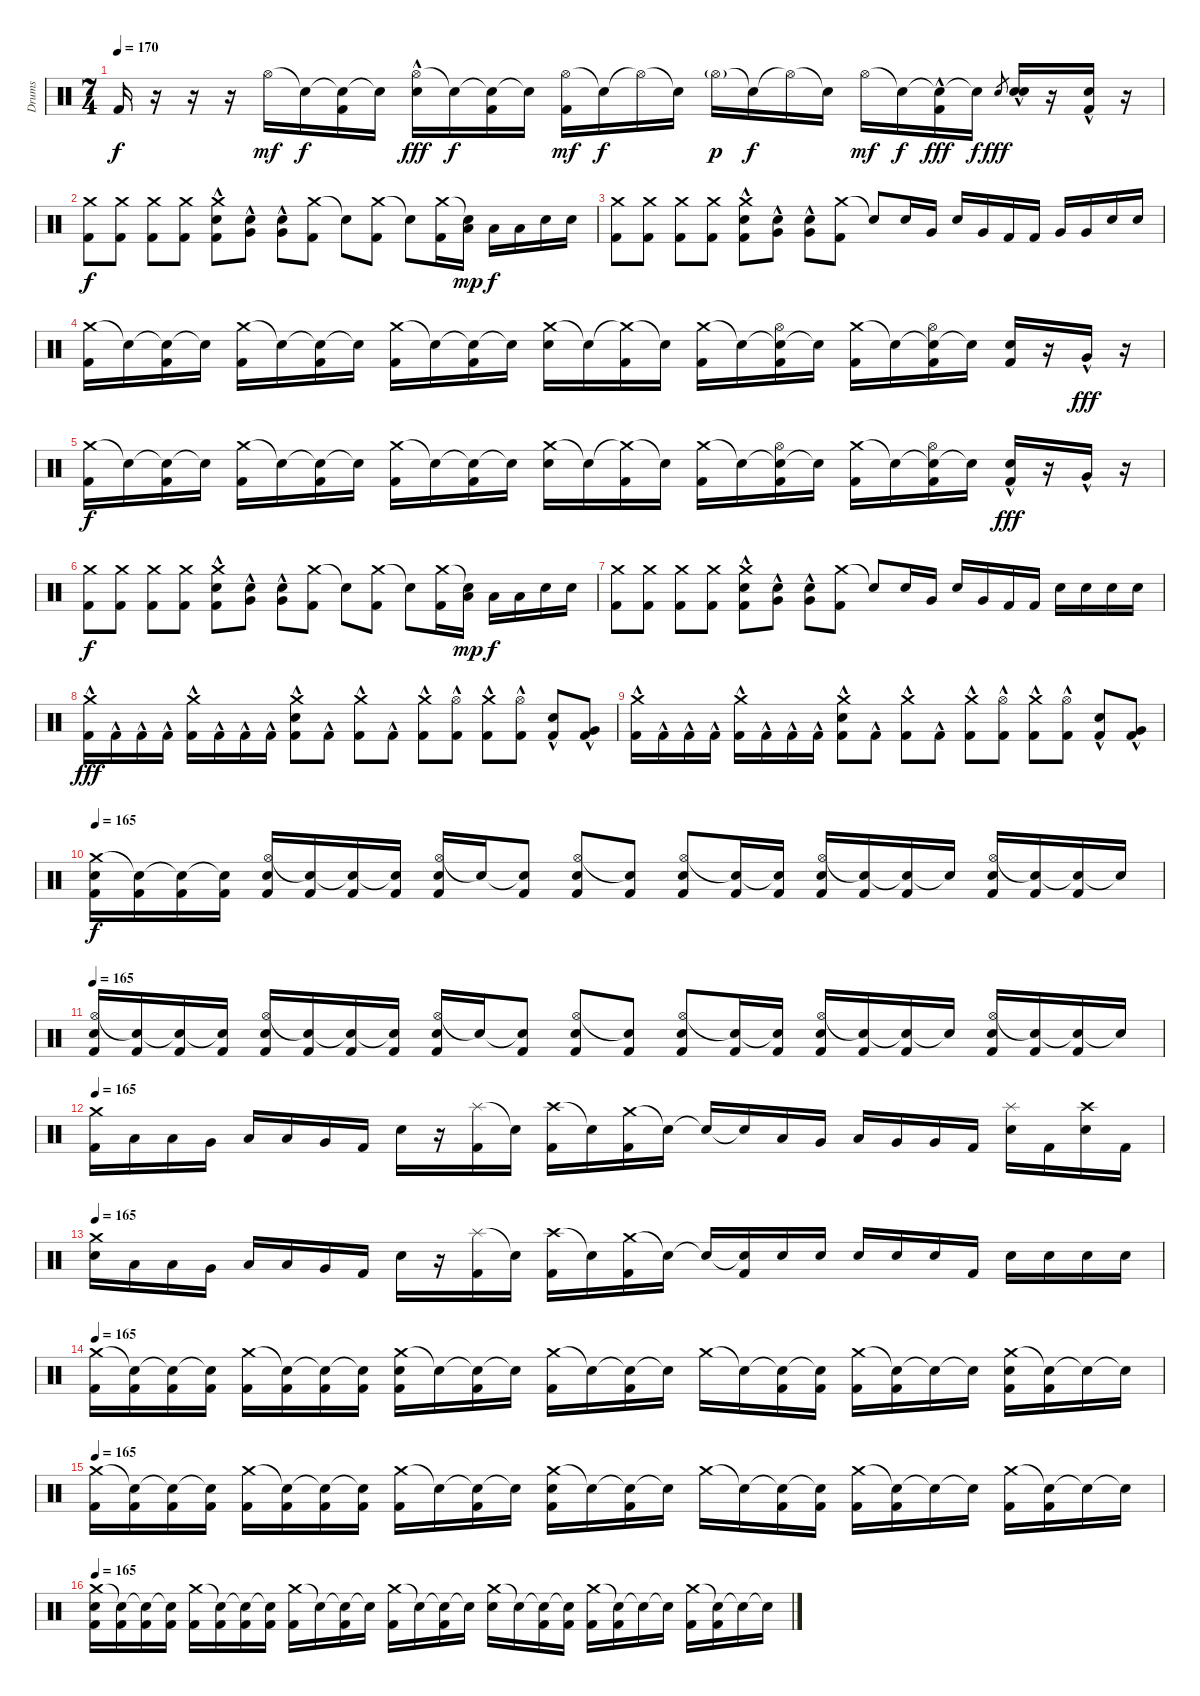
\track ("Drums" "Drums") {instrument percussion}
\staff {score}
\articulation defaults
\ts (7 4)
\tempo 170
\clef neutral
\ks c "Kick (hit) 2".16{dy f}
r.16 r.16 r.16 "Hi-Hat (open)".16{dy mf} "Snare (hit)"{t}.16{dy f} ("Snare (hit)"{t} "Kick (hit) 2").16 "Snare (hit)"{t}.16 ("Hi-Hat (open)" "Electric Snare (hit)"{hac}).16{dy fff} "Snare (hit)"{t}.16{dy f} ("Snare (hit)"{t} "Kick (hit) 2").16 "Snare (hit)"{t}.16 ("Hi-Hat (open)" "Kick (hit) 2").16{dy mf} "Snare (hit)"{t}.16{dy f} "Hi-Hat (open)"{t}.16 "Snare (hit)"{t}.16 "Hi-Hat (open)"{g}.16{dy p} "Snare (hit)"{t}.16{dy f} "Hi-Hat (open)"{t}.16 "Snare (hit)"{t}.16 "Hi-Hat (open)".16{dy mf} "Snare (hit)"{t}.16{dy f} ("Snare (hit)"{t} "Kick (hit) 2"{hac}).16{dy fff} "Snare (hit)"{t}.16{dy f} "Electric Snare (hit)".8{gr dy fff} ("Electric Snare (hit)"{hac} "Electric Snare (hit)"{hac}).16 r.16 ("Electric Snare (hit)" "Kick (hit) 2"{hac}).16 r.16 |
("Crash medium (hit)" "Kick (hit) 2").8{dy f} ("Crash medium (hit)" "Kick (hit) 2").8 ("Crash medium (hit)" "Kick (hit) 2").8 ("Crash medium (hit)" "Kick (hit) 2").8 ("Crash medium (hit)" "Electric Snare (hit)"{hac} "Kick (hit) 2").8 ("Electric Snare (hit)" "Very Low Tom (hit)"{hac}).8 ("Electric Snare (hit)" "Very Low Tom (hit)"{hac}).8 ("Crash medium (hit)" "Kick (hit) 2").8 "Snare (hit)"{t}.8 ("Crash medium (hit)" "Kick (hit) 2").8 "Snare (hit)"{t}.8 ("Crash medium (hit)" "Kick (hit) 2").16 ("Snare (hit)"{t} "Low Floor Tom (hit)").16{dy mp} "Low Floor Tom (hit)".16{dy f} "Low Floor Tom (hit)".16 "Electric Snare (hit)".16 "Electric Snare (hit)".16 |
("Crash medium (hit)" "Kick (hit) 2").8 ("Crash medium (hit)" "Kick (hit) 2").8 ("Crash medium (hit)" "Kick (hit) 2").8 ("Crash medium (hit)" "Kick (hit) 2").8 ("Crash medium (hit)" "Electric Snare (hit)"{hac} "Kick (hit) 2").8 ("Electric Snare (hit)" "Very Low Tom (hit)"{hac}).8 ("Electric Snare (hit)" "Very Low Tom (hit)"{hac}).8 ("Crash medium (hit)" "Kick (hit) 2").8 "Snare (hit)"{t}.8 "Electric Snare (hit)".16 "Very Low Tom (hit)".16 "Electric Snare (hit)".16 "Very Low Tom (hit)".16 "Kick (hit) 2".16 "Kick (hit) 2".16 "Very Low Tom (hit)".16 "Very Low Tom (hit)".16 "Electric Snare (hit)".16 "Electric Snare (hit)".16 |
("Crash medium (hit)" "Kick (hit) 2").16 "Snare (hit)"{t}.16 ("Snare (hit)"{t} "Kick (hit) 2").16 "Snare (hit)"{t}.16 ("Crash medium (hit)" "Kick (hit) 2").16 "Snare (hit)"{t}.16 ("Snare (hit)"{t} "Kick (hit) 2").16 "Snare (hit)"{t}.16 ("Crash medium (hit)" "Kick (hit) 2").16 "Snare (hit)"{t}.16 ("Snare (hit)"{t} "Kick (hit) 2").16 "Snare (hit)"{t}.16 ("Crash medium (hit)" "Electric Snare (hit)").16 "Snare (hit)"{t}.16 ("Crash medium (hit)"{t} "Kick (hit) 2").16 "Snare (hit)"{t}.16 ("Crash medium (hit)" "Kick (hit) 2").16 "Snare (hit)"{t}.16 ("Snare (hit)"{t} "Hi-Hat (open)" "Kick (hit) 2").16 "Snare (hit)"{t}.16 ("Crash medium (hit)" "Kick (hit) 2").16 "Snare (hit)"{t}.16 ("Snare (hit)"{t} "Hi-Hat (open)" "Kick (hit) 2").16 "Snare (hit)"{t}.16 ("Electric Snare (hit)" "Kick (hit) 2").16 r.16 "Very Low Tom (hit)"{hac}.16{dy fff} r.16 |
("Crash medium (hit)" "Kick (hit) 2").16{dy f} "Snare (hit)"{t}.16 ("Snare (hit)"{t} "Kick (hit) 2").16 "Snare (hit)"{t}.16 ("Crash medium (hit)" "Kick (hit) 2").16 "Snare (hit)"{t}.16 ("Snare (hit)"{t} "Kick (hit) 2").16 "Snare (hit)"{t}.16 ("Crash medium (hit)" "Kick (hit) 2").16 "Snare (hit)"{t}.16 ("Snare (hit)"{t} "Kick (hit) 2").16 "Snare (hit)"{t}.16 ("Crash medium (hit)" "Electric Snare (hit)").16 "Snare (hit)"{t}.16 ("Crash medium (hit)"{t} "Kick (hit) 2").16 "Snare (hit)"{t}.16 ("Crash medium (hit)" "Kick (hit) 2").16 "Snare (hit)"{t}.16 ("Snare (hit)"{t} "Hi-Hat (open)" "Kick (hit) 2").16 "Snare (hit)"{t}.16 ("Crash medium (hit)" "Kick (hit) 2").16 "Snare (hit)"{t}.16 ("Snare (hit)"{t} "Hi-Hat (open)" "Kick (hit) 2").16 "Snare (hit)"{t}.16 ("Electric Snare (hit)"{hac} "Kick (hit) 2").16{dy fff} r.16 "Very Low Tom (hit)"{hac}.16 r.16 |
("Crash medium (hit)" "Kick (hit) 2").8{dy f} ("Crash medium (hit)" "Kick (hit) 2").8 ("Crash medium (hit)" "Kick (hit) 2").8 ("Crash medium (hit)" "Kick (hit) 2").8 ("Crash medium (hit)" "Electric Snare (hit)"{hac} "Kick (hit) 2").8 ("Electric Snare (hit)" "Very Low Tom (hit)"{hac}).8 ("Electric Snare (hit)" "Very Low Tom (hit)"{hac}).8 ("Crash medium (hit)" "Kick (hit) 2").8 "Snare (hit)"{t}.8 ("Crash medium (hit)" "Kick (hit) 2").8 "Snare (hit)"{t}.8 ("Crash medium (hit)" "Kick (hit) 2").16 ("Snare (hit)"{t} "Low Floor Tom (hit)").16{dy mp} "Low Floor Tom (hit)".16{dy f} "Low Floor Tom (hit)".16 "Electric Snare (hit)".16 "Electric Snare (hit)".16 |
("Crash medium (hit)" "Kick (hit) 2").8 ("Crash medium (hit)" "Kick (hit) 2").8 ("Crash medium (hit)" "Kick (hit) 2").8 ("Crash medium (hit)" "Kick (hit) 2").8 ("Crash medium (hit)" "Electric Snare (hit)"{hac} "Kick (hit) 2").8 ("Electric Snare (hit)" "Very Low Tom (hit)"{hac}).8 ("Electric Snare (hit)" "Very Low Tom (hit)"{hac}).8 ("Crash medium (hit)" "Kick (hit) 2").8 "Snare (hit)"{t}.8 "Electric Snare (hit)".16 "Very Low Tom (hit)".16 "Electric Snare (hit)".16 "Very Low Tom (hit)".16 "Kick (hit) 2".16 "Kick (hit) 2".16 "Electric Snare (hit)".16 "Electric Snare (hit)".16 "Electric Snare (hit)".16 "Electric Snare (hit)".16 |
("Crash medium (hit)" "Kick (hit) 2"{hac}).16{dy fff} "Kick (hit) 2"{hac}.16 "Kick (hit) 2"{hac}.16 "Kick (hit) 2"{hac}.16 ("Crash medium (hit)" "Kick (hit) 2"{hac}).16 "Kick (hit) 2"{hac}.16 "Kick (hit) 2"{hac}.16 "Kick (hit) 2"{hac}.16 ("Crash medium (hit)" "Electric Snare (hit)" "Kick (hit) 2"{hac}).8 "Kick (hit) 2"{hac}.8 ("Crash medium (hit)" "Kick (hit) 2"{hac}).8 "Kick (hit) 2"{hac}.8 ("Crash medium (hit)" "Kick (hit) 2"{hac}).8 ("Hi-Hat (open)" "Kick (hit) 2"{hac}).8 ("Crash medium (hit)" "Kick (hit) 2"{hac}).8 ("Hi-Hat (open)" "Kick (hit) 2"{hac}).8 ("Electric Snare (hit)" "Kick (hit) 2"{hac}).8 ("Very Low Tom (hit)" "Kick (hit) 2"{hac}).8 |
("Crash medium (hit)" "Kick (hit) 2"{hac}).16 "Kick (hit) 2"{hac}.16 "Kick (hit) 2"{hac}.16 "Kick (hit) 2"{hac}.16 ("Crash medium (hit)" "Kick (hit) 2"{hac}).16 "Kick (hit) 2"{hac}.16 "Kick (hit) 2"{hac}.16 "Kick (hit) 2"{hac}.16 ("Crash medium (hit)" "Electric Snare (hit)" "Kick (hit) 2"{hac}).8 "Kick (hit) 2"{hac}.8 ("Crash medium (hit)" "Kick (hit) 2"{hac}).8 "Kick (hit) 2"{hac}.8 ("Crash medium (hit)" "Kick (hit) 2"{hac}).8 ("Hi-Hat (open)" "Kick (hit) 2"{hac}).8 ("Crash medium (hit)" "Kick (hit) 2"{hac}).8 ("Hi-Hat (open)" "Kick (hit) 2"{hac}).8 ("Electric Snare (hit)" "Kick (hit) 2"{hac}).8 ("Very Low Tom (hit)" "Kick (hit) 2"{hac}).8 |
\tempo 160
\tempo 165
("Crash medium (hit)" "Electric Snare (hit)" "Kick (hit) 2").16{dy f} ("Snare (hit)"{t} "Kick (hit) 2").16 ("Snare (hit)"{t} "Kick (hit) 2").16 ("Snare (hit)"{t} "Kick (hit) 2").16 ("Hi-Hat (open)" "Electric Snare (hit)" "Kick (hit) 2").16 ("Snare (hit)"{t} "Kick (hit) 2").16 ("Snare (hit)"{t} "Kick (hit) 2").16 ("Snare (hit)"{t} "Kick (hit) 2").16 ("Hi-Hat (open)" "Electric Snare (hit)" "Kick (hit) 2").16 "Snare (hit)"{t}.16 ("Snare (hit)"{t} "Kick (hit) 2").8 ("Hi-Hat (open)" "Electric Snare (hit)" "Kick (hit) 2").8 ("Snare (hit)"{t} "Kick (hit) 2").8 ("Hi-Hat (open)" "Electric Snare (hit)" "Kick (hit) 2").8 ("Snare (hit)"{t} "Kick (hit) 2").16 ("Snare (hit)"{t} "Kick (hit) 2").16 ("Hi-Hat (open)" "Electric Snare (hit)" "Kick (hit) 2").16 ("Snare (hit)"{t} "Kick (hit) 2").16 ("Snare (hit)"{t} "Kick (hit) 2").16 "Snare (hit)"{t}.16 ("Hi-Hat (open)" "Electric Snare (hit)" "Kick (hit) 2").16 ("Snare (hit)"{t} "Kick (hit) 2").16 ("Snare (hit)"{t} "Kick (hit) 2").16 "Snare (hit)"{t}.16 |
\tempo 165
("Hi-Hat (open)" "Electric Snare (hit)" "Kick (hit) 2").16 ("Snare (hit)"{t} "Kick (hit) 2").16 ("Snare (hit)"{t} "Kick (hit) 2").16 ("Snare (hit)"{t} "Kick (hit) 2").16 ("Hi-Hat (open)" "Electric Snare (hit)" "Kick (hit) 2").16 ("Snare (hit)"{t} "Kick (hit) 2").16 ("Snare (hit)"{t} "Kick (hit) 2").16 ("Snare (hit)"{t} "Kick (hit) 2").16 ("Hi-Hat (open)" "Electric Snare (hit)" "Kick (hit) 2").16 "Snare (hit)"{t}.16 ("Snare (hit)"{t} "Kick (hit) 2").8 ("Hi-Hat (open)" "Electric Snare (hit)" "Kick (hit) 2").8 ("Snare (hit)"{t} "Kick (hit) 2").8 ("Hi-Hat (open)" "Electric Snare (hit)" "Kick (hit) 2").8 ("Snare (hit)"{t} "Kick (hit) 2").16 ("Snare (hit)"{t} "Kick (hit) 2").16 ("Hi-Hat (open)" "Electric Snare (hit)" "Kick (hit) 2").16 ("Snare (hit)"{t} "Kick (hit) 2").16 ("Snare (hit)"{t} "Kick (hit) 2").16 "Snare (hit)"{t}.16 ("Hi-Hat (open)" "Electric Snare (hit)" "Kick (hit) 2").16 ("Snare (hit)"{t} "Kick (hit) 2").16 ("Snare (hit)"{t} "Kick (hit) 2").16 "Snare (hit)"{t}.16 |
\tempo 165
("Crash medium (hit)" "Kick (hit) 2").16 "Low Tom (hit)".16 "Low Tom (hit)".16 "Very Low Tom (hit)".16 "Low Tom (hit)".16 "Low Tom (hit)".16 "Very Low Tom (hit)".16 "Kick (hit) 2".16 "Electric Snare (hit)".16 r.16 ("Splash (hit)" "Kick (hit) 2").16 "Snare (hit)"{t}.16 ("Crash high (hit)" "Kick (hit) 2").16 "Snare (hit)"{t}.16 ("Crash medium (hit)" "Kick (hit) 2").16 "Snare (hit)"{t}.16 "Snare (hit)"{t}.16 "Snare (hit)"{t}.16 "Low Tom (hit)".16 "Very Low Tom (hit)".16 "Low Tom (hit)".16 "Very Low Tom (hit)".16 "Very Low Tom (hit)".16 "Kick (hit) 2".16 ("Splash (hit)" "Electric Snare (hit)").16 "Kick (hit) 2".16 ("Crash high (hit)" "Electric Snare (hit)").16 "Kick (hit) 2".16 |
\tempo 165
("Crash medium (hit)" "Electric Snare (hit)").16 "Low Tom (hit)".16 "Low Tom (hit)".16 "Very Low Tom (hit)".16 "Low Tom (hit)".16 "Low Tom (hit)".16 "Very Low Tom (hit)".16 "Kick (hit) 2".16 "Electric Snare (hit)".16 r.16 ("Splash (hit)" "Kick (hit) 2").16 "Snare (hit)"{t}.16 ("Crash high (hit)" "Kick (hit) 2").16 "Snare (hit)"{t}.16 ("Crash medium (hit)" "Kick (hit) 2").16 "Snare (hit)"{t}.16 "Snare (hit)"{t}.16 ("Snare (hit)"{t} "Kick (hit) 2").16 "Electric Snare (hit)".16 "Electric Snare (hit)".16 "Electric Snare (hit)".16 "Electric Snare (hit)".16 "Electric Snare (hit)".16 "Kick (hit) 2".16 "Electric Snare (hit)".16 "Electric Snare (hit)".16 "Electric Snare (hit)".16 "Electric Snare (hit)".16 |
\tempo 165
("Crash medium (hit)" "Kick (hit) 2").16 ("Snare (hit)"{t} "Kick (hit) 2").16 ("Snare (hit)"{t} "Kick (hit) 2").16 ("Snare (hit)"{t} "Kick (hit) 2").16 ("Crash medium (hit)" "Kick (hit) 2").16 ("Snare (hit)"{t} "Kick (hit) 2").16 ("Snare (hit)"{t} "Kick (hit) 2").16 ("Snare (hit)"{t} "Kick (hit) 2").16 ("Crash medium (hit)" "Electric Snare (hit)" "Kick (hit) 2").16 "Snare (hit)"{t}.16 ("Snare (hit)"{t} "Kick (hit) 2").16 "Snare (hit)"{t}.16 ("Crash medium (hit)" "Kick (hit) 2").16 "Snare (hit)"{t}.16 ("Snare (hit)"{t} "Kick (hit) 2").16 "Snare (hit)"{t}.16 "Crash medium (hit)".16 "Snare (hit)"{t}.16 ("Snare (hit)"{t} "Kick (hit) 2").16 ("Snare (hit)"{t} "Kick (hit) 2").16 ("Crash medium (hit)" "Kick (hit) 2").16 ("Snare (hit)"{t} "Kick (hit) 2").16 "Snare (hit)"{t}.16 "Snare (hit)"{t}.16 ("Crash medium (hit)" "Electric Snare (hit)" "Kick (hit) 2").16 ("Snare (hit)"{t} "Kick (hit) 2").16 "Snare (hit)"{t}.16 "Snare (hit)"{t}.16 |
\tempo 165
("Crash medium (hit)" "Kick (hit) 2").16 ("Snare (hit)"{t} "Kick (hit) 2").16 ("Snare (hit)"{t} "Kick (hit) 2").16 ("Snare (hit)"{t} "Kick (hit) 2").16 ("Crash medium (hit)" "Kick (hit) 2").16 ("Snare (hit)"{t} "Kick (hit) 2").16 ("Snare (hit)"{t} "Kick (hit) 2").16 ("Snare (hit)"{t} "Kick (hit) 2").16 ("Crash medium (hit)" "Kick (hit) 2").16 "Snare (hit)"{t}.16 ("Snare (hit)"{t} "Kick (hit) 2").16 "Snare (hit)"{t}.16 ("Crash medium (hit)" "Electric Snare (hit)" "Kick (hit) 2").16 "Snare (hit)"{t}.16 ("Snare (hit)"{t} "Kick (hit) 2").16 "Snare (hit)"{t}.16 "Crash medium (hit)".16 "Snare (hit)"{t}.16 ("Snare (hit)"{t} "Kick (hit) 2").16 ("Snare (hit)"{t} "Kick (hit) 2").16 ("Crash medium (hit)" "Kick (hit) 2").16 ("Snare (hit)"{t} "Kick (hit) 2").16 "Snare (hit)"{t}.16 "Snare (hit)"{t}.16 ("Crash medium (hit)" "Kick (hit) 2").16 ("Snare (hit)"{t} "Kick (hit) 2").16 "Snare (hit)"{t}.16 "Snare (hit)"{t}.16 |
\tempo 165
("Crash medium (hit)" "Electric Snare (hit)" "Kick (hit) 2").16 ("Snare (hit)"{t} "Kick (hit) 2").16 ("Snare (hit)"{t} "Kick (hit) 2").16 ("Snare (hit)"{t} "Kick (hit) 2").16 ("Crash medium (hit)" "Kick (hit) 2").16 ("Snare (hit)"{t} "Kick (hit) 2").16 ("Snare (hit)"{t} "Kick (hit) 2").16 ("Snare (hit)"{t} "Kick (hit) 2").16 ("Crash medium (hit)" "Kick (hit) 2").16 "Snare (hit)"{t}.16 ("Snare (hit)"{t} "Kick (hit) 2").16 "Snare (hit)"{t}.16 ("Crash medium (hit)" "Kick (hit) 2").16 "Snare (hit)"{t}.16 ("Snare (hit)"{t} "Kick (hit) 2").16 "Snare (hit)"{t}.16 ("Crash medium (hit)" "Electric Snare (hit)").16 "Snare (hit)"{t}.16 ("Snare (hit)"{t} "Kick (hit) 2").16 ("Snare (hit)"{t} "Kick (hit) 2").16 ("Crash medium (hit)" "Kick (hit) 2").16 ("Snare (hit)"{t} "Kick (hit) 2").16 "Snare (hit)"{t}.16 "Snare (hit)"{t}.16 ("Crash medium (hit)" "Kick (hit) 2").16 ("Snare (hit)"{t} "Kick (hit) 2").16 "Snare (hit)"{t}.16 "Snare (hit)"{t}.16
